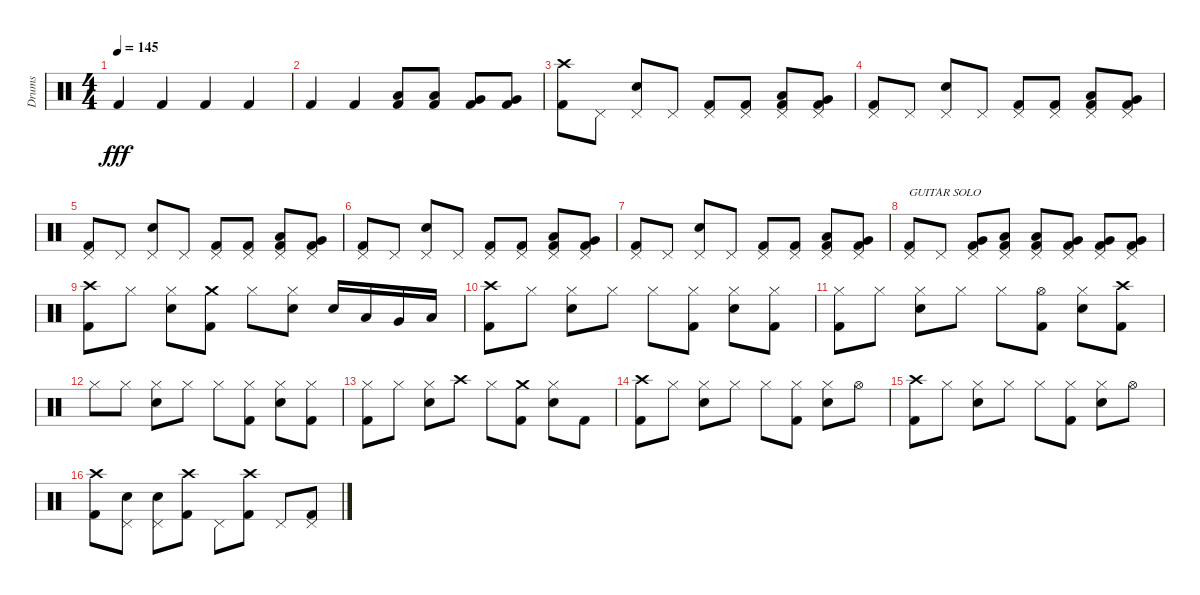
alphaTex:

\track ("Drums" "Drums") {instrument percussion}
\staff {score}
\articulation defaults
\ts (4 4)
\tempo 145
\clef neutral
\ks c "Kick (hit) 2".4{dy fff} "Kick (hit) 2".4 "Kick (hit) 2".4 "Kick (hit) 2".4
|
"Kick (hit) 2".4 "Kick (hit) 2".4 ("Low Tom (hit)" "Kick (hit) 2").8 ("Low Tom (hit)" "Kick (hit) 2").8 ("Very Low Tom (hit)" "Kick (hit) 2").8 ("Very Low Tom (hit)" "Kick (hit) 2").8 |
("Crash high (hit)" "Kick (hit) 2").8 "Pedal Hi-Hat (hit)".8 ("Pedal Hi-Hat (hit)" "Snare (hit) 2").8 "Pedal Hi-Hat (hit)".8 ("Pedal Hi-Hat (hit)" "Kick (hit) 2").8 ("Pedal Hi-Hat (hit)" "Kick (hit) 2").8 ("Pedal Hi-Hat (hit)" "Low Tom (hit)" "Kick (hit) 2").8 ("Pedal Hi-Hat (hit)" "Very Low Tom (hit)" "Kick (hit) 2").8 |
("Pedal Hi-Hat (hit)" "Kick (hit) 2").8 "Pedal Hi-Hat (hit)".8 ("Pedal Hi-Hat (hit)" "Snare (hit) 2").8 "Pedal Hi-Hat (hit)".8 ("Pedal Hi-Hat (hit)" "Kick (hit) 2").8 ("Pedal Hi-Hat (hit)" "Kick (hit) 2").8 ("Pedal Hi-Hat (hit)" "Low Tom (hit)" "Kick (hit) 2").8 ("Pedal Hi-Hat (hit)" "Very Low Tom (hit)" "Kick (hit) 2").8 |
("Pedal Hi-Hat (hit)" "Kick (hit) 2").8 "Pedal Hi-Hat (hit)".8 ("Pedal Hi-Hat (hit)" "Snare (hit) 2").8 "Pedal Hi-Hat (hit)".8 ("Pedal Hi-Hat (hit)" "Kick (hit) 2").8 ("Pedal Hi-Hat (hit)" "Kick (hit) 2").8 ("Pedal Hi-Hat (hit)" "Low Tom (hit)" "Kick (hit) 2").8 ("Pedal Hi-Hat (hit)" "Very Low Tom (hit)" "Kick (hit) 2").8 |
("Pedal Hi-Hat (hit)" "Kick (hit) 2").8 "Pedal Hi-Hat (hit)".8 ("Pedal Hi-Hat (hit)" "Snare (hit) 2").8 "Pedal Hi-Hat (hit)".8 ("Pedal Hi-Hat (hit)" "Kick (hit) 2").8 ("Pedal Hi-Hat (hit)" "Kick (hit) 2").8 ("Pedal Hi-Hat (hit)" "Low Tom (hit)" "Kick (hit) 2").8 ("Pedal Hi-Hat (hit)" "Very Low Tom (hit)" "Kick (hit) 2").8 |
("Pedal Hi-Hat (hit)" "Kick (hit) 2").8 "Pedal Hi-Hat (hit)".8 ("Pedal Hi-Hat (hit)" "Snare (hit) 2").8 "Pedal Hi-Hat (hit)".8 ("Pedal Hi-Hat (hit)" "Kick (hit) 2").8 ("Pedal Hi-Hat (hit)" "Kick (hit) 2").8 ("Pedal Hi-Hat (hit)" "Low Tom (hit)" "Kick (hit) 2").8 ("Pedal Hi-Hat (hit)" "Very Low Tom (hit)" "Kick (hit) 2").8 |
("Pedal Hi-Hat (hit)" "Kick (hit) 2").8{txt "GUITAR SOLO"} "Pedal Hi-Hat (hit)".8 ("Pedal Hi-Hat (hit)" "Very Low Tom (hit)" "Kick (hit) 2").8 ("Pedal Hi-Hat (hit)" "Low Tom (hit)" "Kick (hit) 2").8 ("Pedal Hi-Hat (hit)" "Low Tom (hit)" "Kick (hit) 2").8 ("Pedal Hi-Hat (hit)" "Very Low Tom (hit)" "Kick (hit) 2").8 ("Pedal Hi-Hat (hit)" "Very Low Tom (hit)" "Kick (hit) 2").8 ("Pedal Hi-Hat (hit)" "Very Low Tom (hit)" "Kick (hit) 2").8 |
("Crash high (hit)" "Kick (hit) 2").8 "Hi-Hat (closed)".8 ("Hi-Hat (closed)" "Snare (hit) 2").8 ("Crash medium (hit)" "Kick (hit) 2").8 "Hi-Hat (closed)".8 ("Hi-Hat (closed)" "Snare (hit) 2").8 "Snare (hit) 2".16 "Low Tom (hit)".16 "Very Low Tom (hit)".16 "Low Floor Tom (hit)".16 |
("Crash high (hit)" "Kick (hit) 2").8 "Hi-Hat (closed)".8 ("Hi-Hat (closed)" "Snare (hit) 2").8 "Hi-Hat (closed)".8 "Hi-Hat (closed)".8 ("Hi-Hat (closed)" "Kick (hit) 2").8 ("Hi-Hat (closed)" "Snare (hit) 2").8 ("Hi-Hat (closed)" "Kick (hit) 2").8 |
("Hi-Hat (closed)" "Kick (hit) 2").8 "Hi-Hat (closed)".8 ("Hi-Hat (closed)" "Snare (hit) 2").8 "Hi-Hat (closed)".8 "Hi-Hat (closed)".8 ("Hi-Hat (open)" "Kick (hit) 2").8 ("Hi-Hat (closed)" "Snare (hit) 2").8 ("Crash high (hit)" "Kick (hit) 2").8 |
"Hi-Hat (closed)".8 "Hi-Hat (closed)".8 ("Hi-Hat (closed)" "Snare (hit) 2").8 "Hi-Hat (closed)".8 "Hi-Hat (closed)".8 ("Hi-Hat (closed)" "Kick (hit) 2").8 ("Hi-Hat (closed)" "Snare (hit) 2").8 ("Hi-Hat (closed)" "Kick (hit) 2").8 |
("Hi-Hat (closed)" "Kick (hit) 2").8 "Hi-Hat (closed)".8 ("Hi-Hat (closed)" "Snare (hit) 2").8 "Crash high (hit)".8 "Hi-Hat (closed)".8 ("Crash medium (hit)" "Kick (hit) 2").8 ("Hi-Hat (closed)" "Snare (hit) 2").8 "Kick (hit) 2".8 |
("Crash high (hit)" "Kick (hit) 2").8 "Hi-Hat (closed)".8 ("Hi-Hat (closed)" "Snare (hit) 2").8 "Hi-Hat (closed)".8 "Hi-Hat (closed)".8 ("Hi-Hat (closed)" "Kick (hit) 2").8 ("Hi-Hat (closed)" "Snare (hit) 2").8 "Hi-Hat (open)".8 |
("Crash high (hit)" "Kick (hit) 2").8 "Hi-Hat (closed)".8 ("Hi-Hat (closed)" "Snare (hit) 2").8 "Hi-Hat (closed)".8 "Hi-Hat (closed)".8 ("Hi-Hat (closed)" "Kick (hit) 2").8 ("Hi-Hat (closed)" "Snare (hit) 2").8 "Hi-Hat (open)".8 |
("Crash high (hit)" "Kick (hit) 2").8 ("Pedal Hi-Hat (hit)" "Snare (hit) 2").8 ("Pedal Hi-Hat (hit)" "Snare (hit) 2").8 ("Crash high (hit)" "Kick (hit) 2").8 "Pedal Hi-Hat (hit)".8 ("Crash high (hit)" "Kick (hit) 2").8 "Pedal Hi-Hat (hit)".8 ("Pedal Hi-Hat (hit)" "Kick (hit) 2").8
